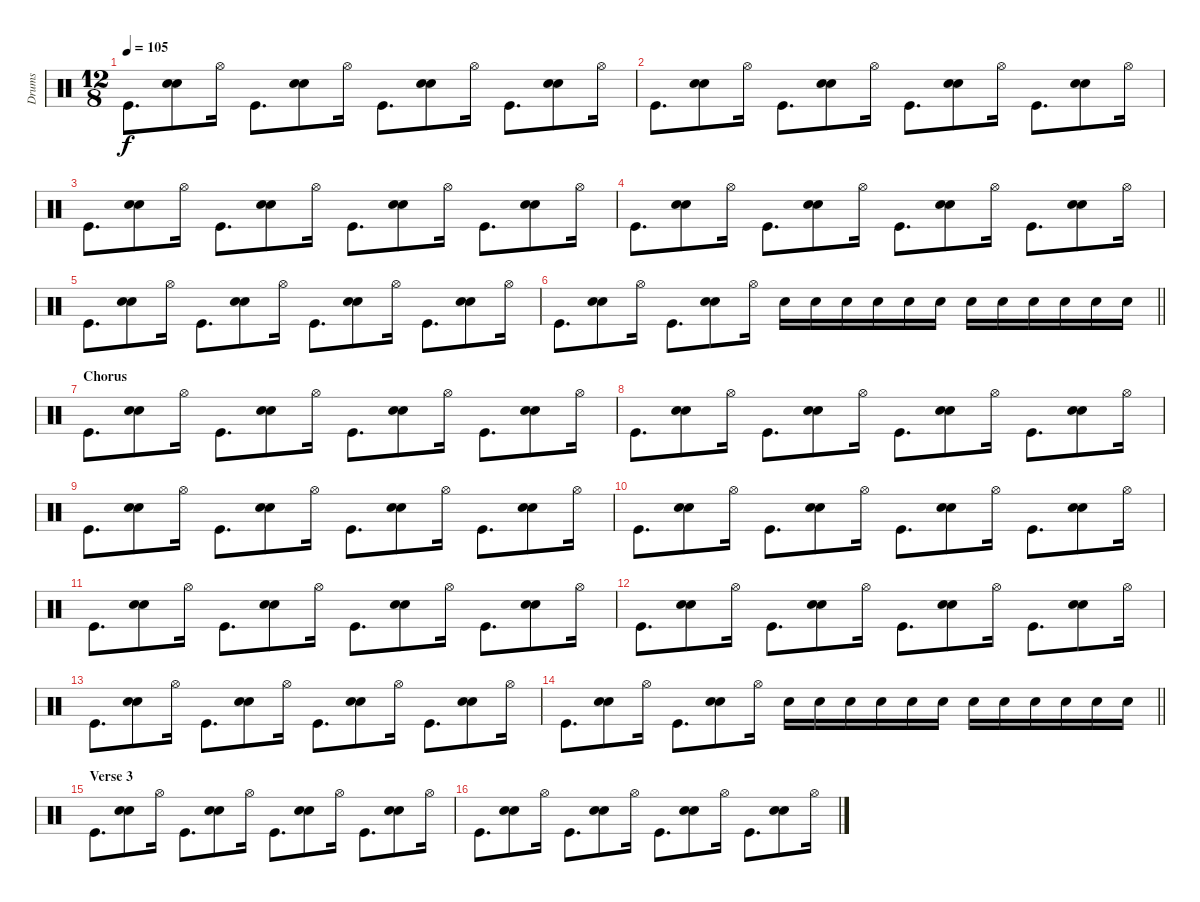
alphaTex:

\track ("Drums" "Drums") {instrument percussion}
\staff {score}
\articulation defaults
\ts (12 8)
\tempo 105
\clef neutral
\ks c "Kick (hit)".8{d dy f}
("Hand Clap (hit)" "Electric Snare (hit)").8 "Hi-Hat (open)".16 "Kick (hit)".8{d} ("Hand Clap (hit)" "Electric Snare (hit)").8 "Hi-Hat (open)".16 "Kick (hit)".8{d} ("Hand Clap (hit)" "Electric Snare (hit)").8 "Hi-Hat (open)".16 "Kick (hit)".8{d} ("Hand Clap (hit)" "Electric Snare (hit)").8 "Hi-Hat (open)".16 |
"Kick (hit)".8{d} ("Hand Clap (hit)" "Electric Snare (hit)").8 "Hi-Hat (open)".16 "Kick (hit)".8{d} ("Hand Clap (hit)" "Electric Snare (hit)").8 "Hi-Hat (open)".16 "Kick (hit)".8{d} ("Hand Clap (hit)" "Electric Snare (hit)").8 "Hi-Hat (open)".16 "Kick (hit)".8{d} ("Hand Clap (hit)" "Electric Snare (hit)").8 "Hi-Hat (open)".16 |
"Kick (hit)".8{d} ("Hand Clap (hit)" "Electric Snare (hit)").8 "Hi-Hat (open)".16 "Kick (hit)".8{d} ("Hand Clap (hit)" "Electric Snare (hit)").8 "Hi-Hat (open)".16 "Kick (hit)".8{d} ("Hand Clap (hit)" "Electric Snare (hit)").8 "Hi-Hat (open)".16 "Kick (hit)".8{d} ("Hand Clap (hit)" "Electric Snare (hit)").8 "Hi-Hat (open)".16 |
"Kick (hit)".8{d} ("Hand Clap (hit)" "Electric Snare (hit)").8 "Hi-Hat (open)".16 "Kick (hit)".8{d} ("Hand Clap (hit)" "Electric Snare (hit)").8 "Hi-Hat (open)".16 "Kick (hit)".8{d} ("Hand Clap (hit)" "Electric Snare (hit)").8 "Hi-Hat (open)".16 "Kick (hit)".8{d} ("Hand Clap (hit)" "Electric Snare (hit)").8 "Hi-Hat (open)".16 |
"Kick (hit)".8{d} ("Hand Clap (hit)" "Electric Snare (hit)").8 "Hi-Hat (open)".16 "Kick (hit)".8{d} ("Hand Clap (hit)" "Electric Snare (hit)").8 "Hi-Hat (open)".16 "Kick (hit)".8{d} ("Hand Clap (hit)" "Electric Snare (hit)").8 "Hi-Hat (open)".16 "Kick (hit)".8{d} ("Hand Clap (hit)" "Electric Snare (hit)").8 "Hi-Hat (open)".16 |
\barLineRight lightlight "Kick (hit)".8{d}
("Hand Clap (hit)" "Electric Snare (hit)").8 "Hi-Hat (open)".16 "Kick (hit)".8{d} ("Hand Clap (hit)" "Electric Snare (hit)").8 "Hi-Hat (open)".16 "Electric Snare (hit)".16 "Electric Snare (hit)".16 "Electric Snare (hit)".16 "Electric Snare (hit)".16 "Electric Snare (hit)".16 "Electric Snare (hit)".16 "Electric Snare (hit)".16 "Electric Snare (hit)".16 "Electric Snare (hit)".16 "Electric Snare (hit)".16 "Electric Snare (hit)".16 "Electric Snare (hit)".16 |
\section ("" "Chorus")
"Kick (hit)".8{d} ("Hand Clap (hit)" "Electric Snare (hit)").8 "Hi-Hat (open)".16 "Kick (hit)".8{d} ("Hand Clap (hit)" "Electric Snare (hit)").8 "Hi-Hat (open)".16 "Kick (hit)".8{d} ("Hand Clap (hit)" "Electric Snare (hit)").8 "Hi-Hat (open)".16 "Kick (hit)".8{d} ("Hand Clap (hit)" "Electric Snare (hit)").8 "Hi-Hat (open)".16 |
"Kick (hit)".8{d} ("Hand Clap (hit)" "Electric Snare (hit)").8 "Hi-Hat (open)".16 "Kick (hit)".8{d} ("Hand Clap (hit)" "Electric Snare (hit)").8 "Hi-Hat (open)".16 "Kick (hit)".8{d} ("Hand Clap (hit)" "Electric Snare (hit)").8 "Hi-Hat (open)".16 "Kick (hit)".8{d} ("Hand Clap (hit)" "Electric Snare (hit)").8 "Hi-Hat (open)".16 |
"Kick (hit)".8{d} ("Hand Clap (hit)" "Electric Snare (hit)").8 "Hi-Hat (open)".16 "Kick (hit)".8{d} ("Hand Clap (hit)" "Electric Snare (hit)").8 "Hi-Hat (open)".16 "Kick (hit)".8{d} ("Hand Clap (hit)" "Electric Snare (hit)").8 "Hi-Hat (open)".16 "Kick (hit)".8{d} ("Hand Clap (hit)" "Electric Snare (hit)").8 "Hi-Hat (open)".16 |
"Kick (hit)".8{d} ("Hand Clap (hit)" "Electric Snare (hit)").8 "Hi-Hat (open)".16 "Kick (hit)".8{d} ("Hand Clap (hit)" "Electric Snare (hit)").8 "Hi-Hat (open)".16 "Kick (hit)".8{d} ("Hand Clap (hit)" "Electric Snare (hit)").8 "Hi-Hat (open)".16 "Kick (hit)".8{d} ("Hand Clap (hit)" "Electric Snare (hit)").8 "Hi-Hat (open)".16 |
"Kick (hit)".8{d} ("Hand Clap (hit)" "Electric Snare (hit)").8 "Hi-Hat (open)".16 "Kick (hit)".8{d} ("Hand Clap (hit)" "Electric Snare (hit)").8 "Hi-Hat (open)".16 "Kick (hit)".8{d} ("Hand Clap (hit)" "Electric Snare (hit)").8 "Hi-Hat (open)".16 "Kick (hit)".8{d} ("Hand Clap (hit)" "Electric Snare (hit)").8 "Hi-Hat (open)".16 |
"Kick (hit)".8{d} ("Hand Clap (hit)" "Electric Snare (hit)").8 "Hi-Hat (open)".16 "Kick (hit)".8{d} ("Hand Clap (hit)" "Electric Snare (hit)").8 "Hi-Hat (open)".16 "Kick (hit)".8{d} ("Hand Clap (hit)" "Electric Snare (hit)").8 "Hi-Hat (open)".16 "Kick (hit)".8{d} ("Hand Clap (hit)" "Electric Snare (hit)").8 "Hi-Hat (open)".16 |
"Kick (hit)".8{d} ("Hand Clap (hit)" "Electric Snare (hit)").8 "Hi-Hat (open)".16 "Kick (hit)".8{d} ("Hand Clap (hit)" "Electric Snare (hit)").8 "Hi-Hat (open)".16 "Kick (hit)".8{d} ("Hand Clap (hit)" "Electric Snare (hit)").8 "Hi-Hat (open)".16 "Kick (hit)".8{d} ("Hand Clap (hit)" "Electric Snare (hit)").8 "Hi-Hat (open)".16 |
\barLineRight lightlight "Kick (hit)".8{d}
("Hand Clap (hit)" "Electric Snare (hit)").8 "Hi-Hat (open)".16 "Kick (hit)".8{d} ("Hand Clap (hit)" "Electric Snare (hit)").8 "Hi-Hat (open)".16 "Electric Snare (hit)".16 "Electric Snare (hit)".16 "Electric Snare (hit)".16 "Electric Snare (hit)".16 "Electric Snare (hit)".16 "Electric Snare (hit)".16 "Electric Snare (hit)".16 "Electric Snare (hit)".16 "Electric Snare (hit)".16 "Electric Snare (hit)".16 "Electric Snare (hit)".16 "Electric Snare (hit)".16 |
\section ("" "Verse 3")
"Kick (hit)".8{d} ("Hand Clap (hit)" "Electric Snare (hit)").8 "Hi-Hat (open)".16 "Kick (hit)".8{d} ("Hand Clap (hit)" "Electric Snare (hit)").8 "Hi-Hat (open)".16 "Kick (hit)".8{d} ("Hand Clap (hit)" "Electric Snare (hit)").8 "Hi-Hat (open)".16 "Kick (hit)".8{d} ("Hand Clap (hit)" "Electric Snare (hit)").8 "Hi-Hat (open)".16 |
"Kick (hit)".8{d} ("Hand Clap (hit)" "Electric Snare (hit)").8 "Hi-Hat (open)".16 "Kick (hit)".8{d} ("Hand Clap (hit)" "Electric Snare (hit)").8 "Hi-Hat (open)".16 "Kick (hit)".8{d} ("Hand Clap (hit)" "Electric Snare (hit)").8 "Hi-Hat (open)".16 "Kick (hit)".8{d} ("Hand Clap (hit)" "Electric Snare (hit)").8 "Hi-Hat (open)".16
